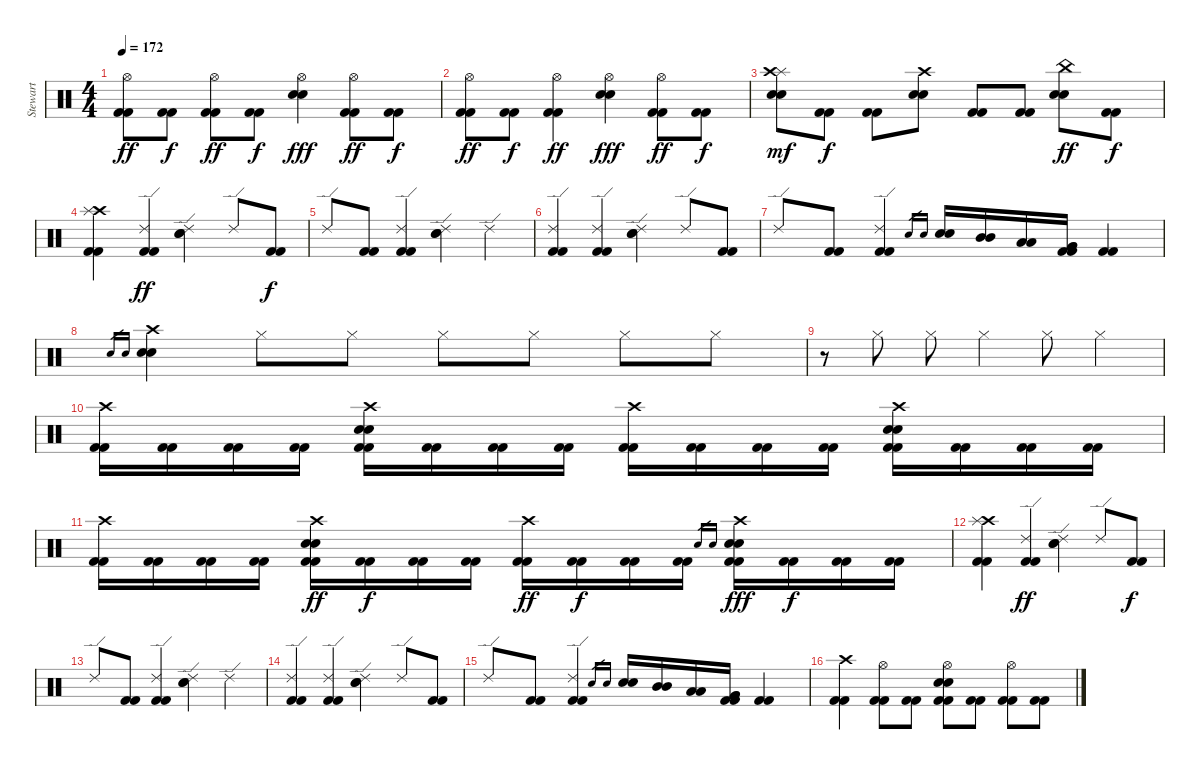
\track ("Stewart" "Stewart") {instrument percussion}
\staff {score}
\articulation defaults
\ts (4 4)
\tempo 172
\clef neutral
\ks c
("Hi-Hat (open)" "Kick (hit) 2" "Kick (hit) 2").8{dy ff} ("Kick (hit) 2" "Kick (hit) 2").8{dy f} ("Hi-Hat (open)" "Kick (hit) 2" "Kick (hit) 2").8{dy ff} ("Kick (hit) 2" "Kick (hit) 2").8{dy f} ("Hi-Hat (open)" "Electric Snare (hit)" "Electric Snare (hit)").4{dy fff} ("Hi-Hat (open)" "Kick (hit) 2" "Kick (hit) 2").8{dy ff} ("Kick (hit) 2" "Kick (hit) 2").8{dy f} |
("Hi-Hat (open)" "Kick (hit) 2" "Kick (hit) 2").8{dy ff} ("Kick (hit) 2" "Kick (hit) 2").8{dy f} ("Hi-Hat (open)" "Kick (hit) 2" "Kick (hit) 2").4{dy ff} ("Hi-Hat (open)" "Electric Snare (hit)" "Electric Snare (hit)").4{dy fff} ("Hi-Hat (open)" "Kick (hit) 2" "Kick (hit) 2").8{dy ff} ("Kick (hit) 2" "Kick (hit) 2").8{dy f} |
("Splash (hit)" "Crash high (hit)" "Electric Snare (hit)" "Electric Snare (hit)").8{dy mf} ("Kick (hit) 2" "Kick (hit) 2").8{dy f} ("Kick (hit) 2" "Kick (hit) 2").8 ("Crash high (hit)" "Electric Snare (hit)" "Electric Snare (hit)").8 ("Kick (hit) 2" "Kick (hit) 2").8 ("Kick (hit) 2" "Kick (hit) 2").8 ("China (hit)" "Electric Snare (hit)" "Electric Snare (hit)").8{dy ff} ("Kick (hit) 2" "Kick (hit) 2").8{dy f} |
("Crash high (hit)" "Splash (hit)" "Kick (hit) 2" "Kick (hit) 2").4 ("Ride (edge) 2" "Kick (hit) 2" "Kick (hit) 2").4{dy ff} ("Ride (edge) 2" "Electric Snare (hit)" "Electric Snare (hit)").4 "Ride (edge) 2".8 ("Kick (hit) 2" "Kick (hit) 2").8{dy f} |
"Ride (edge) 2".8 ("Kick (hit) 2" "Kick (hit) 2").8 ("Ride (edge) 2" "Kick (hit) 2" "Kick (hit) 2").4 ("Ride (edge) 2" "Electric Snare (hit)" "Electric Snare (hit)").4 "Ride (edge) 2".4 |
("Ride (edge) 2" "Kick (hit) 2" "Kick (hit) 2").4 ("Ride (edge) 2" "Kick (hit) 2" "Kick (hit) 2").4 ("Ride (edge) 2" "Electric Snare (hit)" "Electric Snare (hit)").4 "Ride (edge) 2".8 ("Kick (hit) 2" "Kick (hit) 2").8 |
"Ride (edge) 2".8 ("Kick (hit) 2" "Kick (hit) 2").8 ("Ride (edge) 2" "Kick (hit) 2" "Kick (hit) 2").4 "Electric Snare (hit)".16{gr} "Electric Snare (hit)".16{gr} ("Electric Snare (hit)" "Electric Snare (hit)").16 ("Mid Tom (hit)" "Mid Tom (hit)").16 ("Low Tom (hit)" "Low Tom (hit)").16 ("Very Low Tom (hit)" "Very Low Tom (hit)" "Kick (hit) 2" "Kick (hit) 2").16 ("Kick (hit) 2" "Kick (hit) 2").4 |
"Electric Snare (hit)".16{gr} "Electric Snare (hit)".16{gr} ("Crash high (hit)" "Electric Snare (hit)" "Electric Snare (hit)").4 "Hi-Hat (closed)".8 "Hi-Hat (closed)".8 "Hi-Hat (closed)".8 "Hi-Hat (closed)".8 "Hi-Hat (closed)".8 "Hi-Hat (closed)".8 |
r.8 "Hi-Hat (closed)".8 "Hi-Hat (closed)".8 "Hi-Hat (closed)".4 "Hi-Hat (closed)".8 "Hi-Hat (closed)".4 |
("Crash high (hit)" "Kick (hit) 2" "Kick (hit) 2").16 ("Kick (hit) 2" "Kick (hit) 2").16 ("Kick (hit) 2" "Kick (hit) 2").16 ("Kick (hit) 2" "Kick (hit) 2").16 ("Crash high (hit)" "Electric Snare (hit)" "Electric Snare (hit)" "Kick (hit) 2" "Kick (hit) 2").16 ("Kick (hit) 2" "Kick (hit) 2").16 ("Kick (hit) 2" "Kick (hit) 2").16 ("Kick (hit) 2" "Kick (hit) 2").16 ("Crash high (hit)" "Kick (hit) 2" "Kick (hit) 2").16 ("Kick (hit) 2" "Kick (hit) 2").16 ("Kick (hit) 2" "Kick (hit) 2").16 ("Kick (hit) 2" "Kick (hit) 2").16 ("Crash high (hit)" "Electric Snare (hit)" "Electric Snare (hit)" "Kick (hit) 2" "Kick (hit) 2").16 ("Kick (hit) 2" "Kick (hit) 2").16 ("Kick (hit) 2" "Kick (hit) 2").16 ("Kick (hit) 2" "Kick (hit) 2").16 |
("Crash high (hit)" "Kick (hit) 2" "Kick (hit) 2").16 ("Kick (hit) 2" "Kick (hit) 2").16 ("Kick (hit) 2" "Kick (hit) 2").16 ("Kick (hit) 2" "Kick (hit) 2").16 ("Crash high (hit)" "Electric Snare (hit)" "Electric Snare (hit)" "Kick (hit) 2" "Kick (hit) 2").16{dy ff} ("Kick (hit) 2" "Kick (hit) 2").16{dy f} ("Kick (hit) 2" "Kick (hit) 2").16 ("Kick (hit) 2" "Kick (hit) 2").16 ("Crash high (hit)" "Kick (hit) 2" "Kick (hit) 2").16{dy ff} ("Kick (hit) 2" "Kick (hit) 2").16{dy f} ("Kick (hit) 2" "Kick (hit) 2").16 ("Kick (hit) 2" "Kick (hit) 2").16 "Electric Snare (hit)".16{gr} "Electric Snare (hit)".16{gr} ("Crash high (hit)" "Electric Snare (hit)" "Electric Snare (hit)" "Kick (hit) 2" "Kick (hit) 2").16{dy fff} ("Kick (hit) 2" "Kick (hit) 2").16{dy f} ("Kick (hit) 2" "Kick (hit) 2").16 ("Kick (hit) 2" "Kick (hit) 2").16 |
("Crash high (hit)" "Splash (hit)" "Kick (hit) 2" "Kick (hit) 2").4 ("Ride (edge) 2" "Kick (hit) 2" "Kick (hit) 2").4{dy ff} ("Ride (edge) 2" "Electric Snare (hit)" "Electric Snare (hit)").4 "Ride (edge) 2".8 ("Kick (hit) 2" "Kick (hit) 2").8{dy f} |
"Ride (edge) 2".8 ("Kick (hit) 2" "Kick (hit) 2").8 ("Ride (edge) 2" "Kick (hit) 2" "Kick (hit) 2").4 ("Ride (edge) 2" "Electric Snare (hit)" "Electric Snare (hit)").4 "Ride (edge) 2".4 |
("Ride (edge) 2" "Kick (hit) 2" "Kick (hit) 2").4 ("Ride (edge) 2" "Kick (hit) 2" "Kick (hit) 2").4 ("Ride (edge) 2" "Electric Snare (hit)" "Electric Snare (hit)").4 "Ride (edge) 2".8 ("Kick (hit) 2" "Kick (hit) 2").8 |
"Ride (edge) 2".8 ("Kick (hit) 2" "Kick (hit) 2").8 ("Ride (edge) 2" "Kick (hit) 2" "Kick (hit) 2").4 "Electric Snare (hit)".16{gr} "Electric Snare (hit)".16{gr} ("Electric Snare (hit)" "Electric Snare (hit)").16 ("Mid Tom (hit)" "Mid Tom (hit)").16 ("Low Tom (hit)" "Low Tom (hit)").16 ("Very Low Tom (hit)" "Very Low Tom (hit)" "Kick (hit) 2" "Kick (hit) 2").16 ("Kick (hit) 2" "Kick (hit) 2").4 |
("Crash high (hit)" "Kick (hit) 2" "Kick (hit) 2").4 ("Hi-Hat (open)" "Kick (hit) 2" "Kick (hit) 2").8 ("Kick (hit) 2" "Kick (hit) 2").8 ("Hi-Hat (open)" "Electric Snare (hit)" "Electric Snare (hit)" "Kick (hit) 2" "Kick (hit) 2").8 ("Kick (hit) 2" "Kick (hit) 2").8 ("Hi-Hat (open)" "Kick (hit) 2" "Kick (hit) 2").8 ("Kick (hit) 2" "Kick (hit) 2").8
